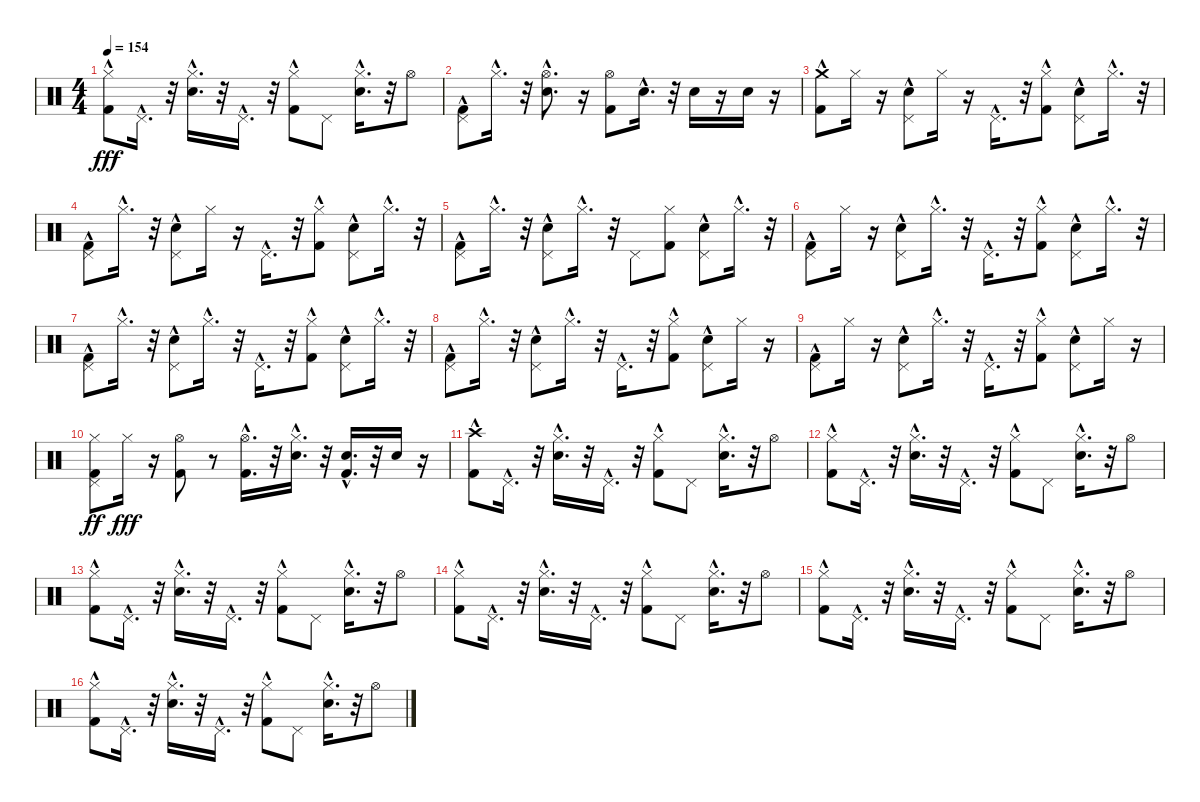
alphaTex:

\track "" {instrument percussion}
\staff {score}
\articulation defaults
\ts (4 4)
\tempo 154
\clef neutral
\ks c
("Kick (hit) 2" "Hi-Hat (closed)"{hac}).8{dy fff} "Pedal Hi-Hat (hit)"{hac}.16{d} r.32 ("Electric Snare (hit)"{hac} "Hi-Hat (closed)").16{d} r.32 "Pedal Hi-Hat (hit)"{hac}.16{d} r.32 ("Hi-Hat (closed)"{hac} "Kick (hit) 2").8 "Pedal Hi-Hat (hit)".8 ("Electric Snare (hit)"{hac} "Hi-Hat (closed)").16{d} r.32 "Hi-Hat (open)".8 |
("Kick (hit) 2" "Pedal Hi-Hat (hit)"{hac}).8 "Hi-Hat (closed)"{hac}.16{d} r.32 ("Hi-Hat (open)"{hac} "Electric Snare (hit)").8{d} r.16 ("Kick (hit) 2" "Hi-Hat (open)").8 "Electric Snare (hit)"{hac}.16{d} r.32 "Electric Snare (hit)".16 r.16 "Electric Snare (hit)".16 r.16 |
("Kick (hit) 2"{hac} "Crash medium (hit)").8 "Hi-Hat (closed)".16 r.16 ("Pedal Hi-Hat (hit)"{hac} "Electric Snare (hit)").8 "Hi-Hat (closed)".16 r.16 "Pedal Hi-Hat (hit)"{hac}.16{d} r.32 ("Hi-Hat (closed)" "Kick (hit) 2"{hac}).8 ("Pedal Hi-Hat (hit)"{hac} "Electric Snare (hit)"{hac}).8 "Hi-Hat (closed)"{hac}.16{d} r.32 |
("Pedal Hi-Hat (hit)"{hac} "Kick (hit) 2").8 "Hi-Hat (closed)"{hac}.16{d} r.32 ("Pedal Hi-Hat (hit)"{hac} "Electric Snare (hit)").8 "Hi-Hat (closed)".16 r.16 "Pedal Hi-Hat (hit)"{hac}.16{d} r.32 ("Hi-Hat (closed)"{hac} "Kick (hit) 2").8 ("Pedal Hi-Hat (hit)"{hac} "Electric Snare (hit)").8 "Hi-Hat (closed)"{hac}.16{d} r.32 |
("Pedal Hi-Hat (hit)" "Kick (hit) 2"{hac}).8 "Hi-Hat (closed)"{hac}.16{d} r.32 ("Pedal Hi-Hat (hit)"{hac} "Electric Snare (hit)"{hac}).8 "Hi-Hat (closed)"{hac}.16{d} r.32 "Pedal Hi-Hat (hit)".8 ("Kick (hit) 2" "Hi-Hat (closed)").8 ("Pedal Hi-Hat (hit)"{hac} "Electric Snare (hit)").8 "Hi-Hat (closed)"{hac}.16{d} r.32 |
("Pedal Hi-Hat (hit)"{hac} "Kick (hit) 2"{hac}).8 "Hi-Hat (closed)".16 r.16 ("Pedal Hi-Hat (hit)"{hac} "Electric Snare (hit)"{hac}).8 "Hi-Hat (closed)"{hac}.16{d} r.32 "Pedal Hi-Hat (hit)"{hac}.16{d} r.32 ("Hi-Hat (closed)"{hac} "Kick (hit) 2"{hac}).8 ("Pedal Hi-Hat (hit)"{hac} "Electric Snare (hit)").8 "Hi-Hat (closed)"{hac}.16{d} r.32 |
("Pedal Hi-Hat (hit)"{hac} "Kick (hit) 2"{hac}).8 "Hi-Hat (closed)"{hac}.16{d} r.32 ("Pedal Hi-Hat (hit)"{hac} "Electric Snare (hit)").8 "Hi-Hat (closed)"{hac}.16{d} r.32 "Pedal Hi-Hat (hit)"{hac}.16{d} r.32 ("Hi-Hat (closed)"{hac} "Kick (hit) 2"{hac}).8 ("Pedal Hi-Hat (hit)"{hac} "Electric Snare (hit)").8 "Hi-Hat (closed)"{hac}.16{d} r.32 |
("Pedal Hi-Hat (hit)"{hac} "Kick (hit) 2").8 "Hi-Hat (closed)"{hac}.16{d} r.32 ("Pedal Hi-Hat (hit)"{hac} "Electric Snare (hit)"{hac}).8 "Hi-Hat (closed)"{hac}.16{d} r.32 "Pedal Hi-Hat (hit)"{hac}.16{d} r.32 ("Hi-Hat (closed)"{hac} "Kick (hit) 2").8 ("Pedal Hi-Hat (hit)"{hac} "Electric Snare (hit)").8 "Hi-Hat (closed)".16 r.16 |
("Kick (hit) 2" "Pedal Hi-Hat (hit)"{hac}).8 "Hi-Hat (closed)".16 r.16 ("Pedal Hi-Hat (hit)"{hac} "Electric Snare (hit)"{hac}).8 "Hi-Hat (closed)"{hac}.16{d} r.32 "Pedal Hi-Hat (hit)"{hac}.16{d} r.32 ("Kick (hit) 2" "Hi-Hat (closed)"{hac}).8 ("Electric Snare (hit)"{hac} "Pedal Hi-Hat (hit)"{hac}).8 "Hi-Hat (closed)".16 r.16 |
("Hi-Hat (closed)" "Kick (hit) 2" "Pedal Hi-Hat (hit)").8{dy ff} "Hi-Hat (closed)".16{dy fff} r.16 ("Hi-Hat (open)" "Kick (hit) 2").8 r.8 ("Hi-Hat (open)"{hac} "Kick (hit) 2"{hac}).16{d} r.32 ("Electric Snare (hit)"{hac} "Hi-Hat (closed)").16{d} r.32 ("Kick (hit) 2"{hac} "Electric Snare (hit)"{hac}).16{d} r.32 "Electric Snare (hit)".16 r.16 |
("Kick (hit) 2" "Crash high (hit)"{hac}).8 "Pedal Hi-Hat (hit)"{hac}.16{d} r.32 ("Electric Snare (hit)"{hac} "Hi-Hat (closed)").16{d} r.32 "Pedal Hi-Hat (hit)"{hac}.16{d} r.32 ("Hi-Hat (closed)"{hac} "Kick (hit) 2").8 "Pedal Hi-Hat (hit)".8 ("Electric Snare (hit)"{hac} "Hi-Hat (closed)").16{d} r.32 "Hi-Hat (open)".8 |
("Kick (hit) 2" "Hi-Hat (closed)"{hac}).8 "Pedal Hi-Hat (hit)"{hac}.16{d} r.32 ("Electric Snare (hit)"{hac} "Hi-Hat (closed)").16{d} r.32 "Pedal Hi-Hat (hit)"{hac}.16{d} r.32 ("Hi-Hat (closed)"{hac} "Kick (hit) 2").8 "Pedal Hi-Hat (hit)".8 ("Electric Snare (hit)"{hac} "Hi-Hat (closed)").16{d} r.32 "Hi-Hat (open)".8 |
("Kick (hit) 2" "Hi-Hat (closed)"{hac}).8 "Pedal Hi-Hat (hit)"{hac}.16{d} r.32 ("Electric Snare (hit)"{hac} "Hi-Hat (closed)").16{d} r.32 "Pedal Hi-Hat (hit)"{hac}.16{d} r.32 ("Hi-Hat (closed)"{hac} "Kick (hit) 2").8 "Pedal Hi-Hat (hit)".8 ("Electric Snare (hit)"{hac} "Hi-Hat (closed)").16{d} r.32 "Hi-Hat (open)".8 |
("Kick (hit) 2" "Hi-Hat (closed)"{hac}).8 "Pedal Hi-Hat (hit)"{hac}.16{d} r.32 ("Electric Snare (hit)"{hac} "Hi-Hat (closed)").16{d} r.32 "Pedal Hi-Hat (hit)"{hac}.16{d} r.32 ("Hi-Hat (closed)"{hac} "Kick (hit) 2").8 "Pedal Hi-Hat (hit)".8 ("Electric Snare (hit)"{hac} "Hi-Hat (closed)").16{d} r.32 "Hi-Hat (open)".8 |
("Kick (hit) 2" "Hi-Hat (closed)"{hac}).8 "Pedal Hi-Hat (hit)"{hac}.16{d} r.32 ("Electric Snare (hit)"{hac} "Hi-Hat (closed)").16{d} r.32 "Pedal Hi-Hat (hit)"{hac}.16{d} r.32 ("Hi-Hat (closed)"{hac} "Kick (hit) 2").8 "Pedal Hi-Hat (hit)".8 ("Electric Snare (hit)"{hac} "Hi-Hat (closed)").16{d} r.32 "Hi-Hat (open)".8 |
("Kick (hit) 2" "Hi-Hat (closed)"{hac}).8 "Pedal Hi-Hat (hit)"{hac}.16{d} r.32 ("Electric Snare (hit)"{hac} "Hi-Hat (closed)").16{d} r.32 "Pedal Hi-Hat (hit)"{hac}.16{d} r.32 ("Hi-Hat (closed)"{hac} "Kick (hit) 2").8 "Pedal Hi-Hat (hit)".8 ("Electric Snare (hit)"{hac} "Hi-Hat (closed)").16{d} r.32 "Hi-Hat (open)".8
